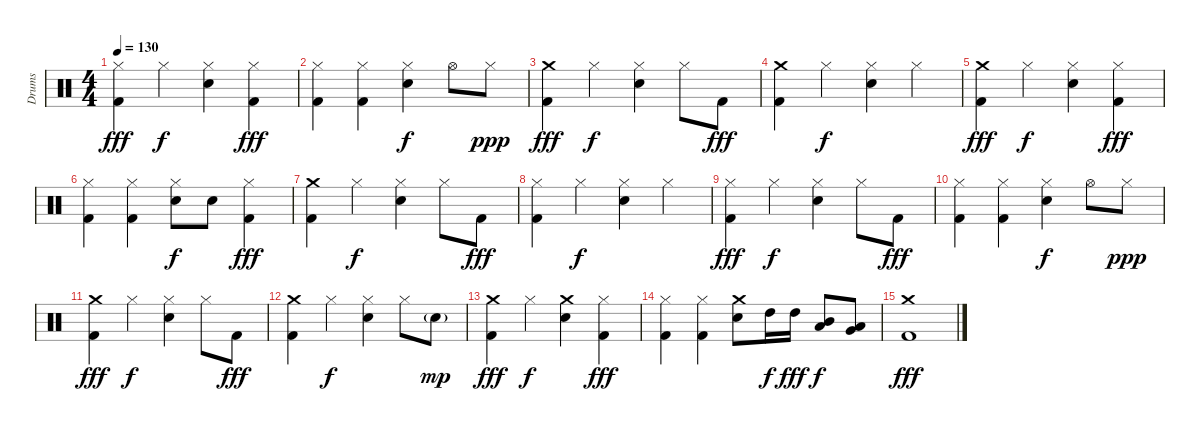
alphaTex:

\track ("Drums" "Drums") {instrument percussion}
\staff {score}
\articulation defaults
\ts (4 4)
\tempo 130
\clef neutral
\ks c
("Hi-Hat (closed)" "Kick (hit) 2").4{dy fff} "Hi-Hat (closed)".4{dy f} ("Hi-Hat (closed)" "Electric Snare (hit)").4 ("Hi-Hat (closed)" "Kick (hit) 2").4{dy fff} |
("Hi-Hat (closed)" "Kick (hit) 2").4 ("Hi-Hat (closed)" "Kick (hit) 2").4 ("Hi-Hat (closed)" "Electric Snare (hit)").4{dy f} "Hi-Hat (open)".8 "Hi-Hat (closed)".8{dy ppp} |
("Crash medium (hit)" "Kick (hit) 2").4{dy fff} "Hi-Hat (closed)".4{dy f} ("Hi-Hat (closed)" "Electric Snare (hit)").4 "Hi-Hat (closed)".8 "Kick (hit) 2".8{dy fff} |
("Crash medium (hit)" "Kick (hit) 2").4 "Hi-Hat (closed)".4{dy f} ("Hi-Hat (closed)" "Electric Snare (hit)").4 "Hi-Hat (closed)".4 |
("Crash medium (hit)" "Kick (hit) 2").4{dy fff} "Hi-Hat (closed)".4{dy f} ("Hi-Hat (closed)" "Electric Snare (hit)").4 ("Hi-Hat (closed)" "Kick (hit) 2").4{dy fff} |
("Hi-Hat (closed)" "Kick (hit) 2").4 ("Hi-Hat (closed)" "Kick (hit) 2").4 ("Hi-Hat (closed)" "Electric Snare (hit)").8{dy f} "Electric Snare (hit)".8 ("Hi-Hat (closed)" "Kick (hit) 2").4{dy fff} |
("Crash medium (hit)" "Kick (hit) 2").4 "Hi-Hat (closed)".4{dy f} ("Hi-Hat (closed)" "Electric Snare (hit)").4 "Hi-Hat (closed)".8 "Kick (hit) 2".8{dy fff} |
("Hi-Hat (closed)" "Kick (hit) 2").4 "Hi-Hat (closed)".4{dy f} ("Hi-Hat (closed)" "Electric Snare (hit)").4 "Hi-Hat (closed)".4 |
("Hi-Hat (closed)" "Kick (hit) 2").4{dy fff} "Hi-Hat (closed)".4{dy f} ("Hi-Hat (closed)" "Electric Snare (hit)").4 "Hi-Hat (closed)".8 "Kick (hit) 2".8{dy fff} |
("Hi-Hat (closed)" "Kick (hit) 2").4 ("Hi-Hat (closed)" "Kick (hit) 2").4 ("Hi-Hat (closed)" "Electric Snare (hit)").4{dy f} "Hi-Hat (open)".8 "Hi-Hat (closed)".8{dy ppp} |
("Crash medium (hit)" "Kick (hit) 2").4{dy fff} "Hi-Hat (closed)".4{dy f} ("Hi-Hat (closed)" "Electric Snare (hit)").4 "Hi-Hat (closed)".8 "Kick (hit) 2".8{dy fff} |
("Crash medium (hit)" "Kick (hit) 2").4 "Hi-Hat (closed)".4{dy f} ("Hi-Hat (closed)" "Electric Snare (hit)").4 "Hi-Hat (closed)".8 "Electric Snare (hit)"{g}.8{dy mp} |
("Crash medium (hit)" "Kick (hit) 2").4{dy fff} "Hi-Hat (closed)".4{dy f} ("Crash medium (hit)" "Electric Snare (hit)").4 ("Hi-Hat (closed)" "Kick (hit) 2").4{dy fff} |
("Hi-Hat (closed)" "Kick (hit) 2").4 ("Hi-Hat (closed)" "Kick (hit) 2").4 ("Crash medium (hit)" "Electric Snare (hit)").8 "High Tom (hit)".16{dy f} "High Tom (hit)".16{dy fff} ("Low Tom (hit)" "Mid Tom (hit)").8{dy f} ("Very Low Tom (hit)" "Low Tom (hit)").8 |
("Crash medium (hit)" "Kick (hit) 2").1{dy fff}
